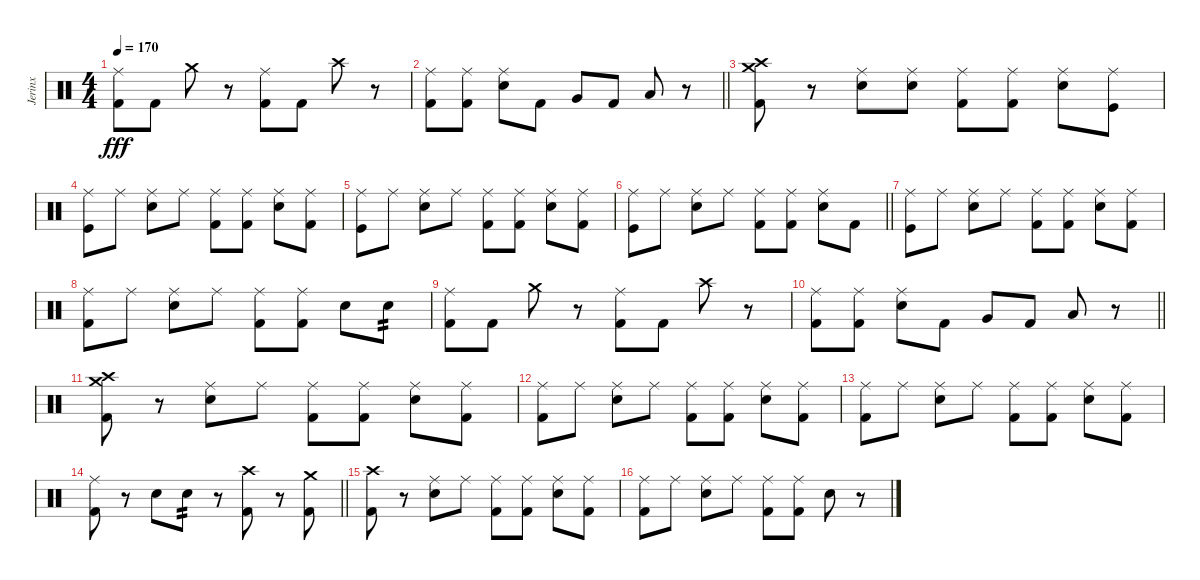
\track ("Jerinx" "Jerinx") {instrument percussion}
\staff {score}
\articulation defaults
\ts (4 4)
\tempo 170
\clef neutral
\ks c
("Kick (hit) 2" "Ride (middle)").8{dy fff} "Kick (hit) 2".8 "Crash medium (hit)".8 r.8 ("Kick (hit) 2" "Ride (middle)").8 "Kick (hit) 2".8 "Crash high (hit)".8 r.8 |
\barLineRight lightlight
("Kick (hit) 2" "Ride (middle)").8 ("Kick (hit) 2" "Ride (middle)").8 ("Snare (hit) 2" "Ride (middle)").8 "Kick (hit) 2".8 "Very Low Tom (hit)".8 "Kick (hit) 2".8 "Low Tom (hit)".8 r.8 |
("Kick (hit) 2" "Crash medium (hit)" "Crash high (hit)").8 r.8 ("Snare (hit) 2" "Ride (middle)").8 ("Snare (hit) 2" "Ride (middle)").8 ("Kick (hit) 2" "Ride (middle)").8 ("Kick (hit) 2" "Ride (middle)").8 ("Snare (hit) 2" "Ride (middle)").8 ("Kick (hit)" "Ride (middle)").8 |
("Kick (hit)" "Ride (middle)").8 "Ride (middle)".8 ("Snare (hit) 2" "Ride (middle)").8 "Ride (middle)".8 ("Kick (hit) 2" "Ride (middle)").8 ("Kick (hit) 2" "Ride (middle)").8 ("Snare (hit) 2" "Ride (middle)").8 ("Kick (hit) 2" "Ride (middle)").8 |
("Kick (hit)" "Ride (middle)").8 "Ride (middle)".8 ("Snare (hit) 2" "Ride (middle)").8 "Ride (middle)".8 ("Kick (hit) 2" "Ride (middle)").8 ("Kick (hit) 2" "Ride (middle)").8 ("Snare (hit) 2" "Ride (middle)").8 ("Kick (hit) 2" "Ride (middle)").8 |
\barLineRight lightlight
("Kick (hit)" "Ride (middle)").8 "Ride (middle)".8 ("Snare (hit) 2" "Ride (middle)").8 "Ride (middle)".8 ("Kick (hit) 2" "Ride (middle)").8 ("Kick (hit) 2" "Ride (middle)").8 ("Snare (hit) 2" "Ride (middle)").8 "Kick (hit) 2".8 |
("Kick (hit)" "Ride (middle)").8 "Ride (middle)".8 ("Snare (hit) 2" "Ride (middle)").8 "Ride (middle)".8 ("Kick (hit) 2" "Ride (middle)").8 ("Kick (hit) 2" "Ride (middle)").8 ("Snare (hit) 2" "Ride (middle)").8 ("Kick (hit) 2" "Ride (middle)").8 |
("Kick (hit) 2" "Ride (middle)").8 "Ride (middle)".8 ("Snare (hit) 2" "Ride (middle)").8 "Ride (middle)".8 ("Kick (hit) 2" "Ride (middle)").8 ("Kick (hit) 2" "Ride (middle)").8 "Snare (hit) 2".8 "Snare (hit) 2".8{tp 2} |
("Kick (hit) 2" "Ride (middle)").8 "Kick (hit) 2".8 "Crash medium (hit)".8 r.8 ("Kick (hit) 2" "Ride (middle)").8 "Kick (hit) 2".8 "Crash high (hit)".8 r.8 |
\barLineRight lightlight
("Kick (hit) 2" "Ride (middle)").8 ("Kick (hit) 2" "Ride (middle)").8 ("Snare (hit) 2" "Ride (middle)").8 "Kick (hit) 2".8 "Very Low Tom (hit)".8 "Kick (hit) 2".8 "Low Tom (hit)".8 r.8 |
("Kick (hit) 2" "Crash high (hit)" "Crash medium (hit)").8 r.8 ("Snare (hit) 2" "Ride (middle)").8 "Ride (middle)".8 ("Kick (hit) 2" "Ride (middle)").8 ("Kick (hit) 2" "Ride (middle)").8 ("Snare (hit) 2" "Ride (middle)").8 ("Kick (hit) 2" "Ride (middle)").8 |
("Kick (hit) 2" "Ride (middle)").8 "Ride (middle)".8 ("Snare (hit) 2" "Ride (middle)").8 "Ride (middle)".8 ("Kick (hit) 2" "Ride (middle)").8 ("Kick (hit) 2" "Ride (middle)").8 ("Snare (hit) 2" "Ride (middle)").8 ("Kick (hit) 2" "Ride (middle)").8 |
("Kick (hit) 2" "Ride (middle)").8 "Ride (middle)".8 ("Snare (hit) 2" "Ride (middle)").8 "Ride (middle)".8 ("Kick (hit) 2" "Ride (middle)").8 ("Kick (hit) 2" "Ride (middle)").8 ("Snare (hit) 2" "Ride (middle)").8 ("Kick (hit) 2" "Ride (middle)").8 |
\barLineRight lightlight
("Kick (hit) 2" "Ride (middle)").8 r.8 "Snare (hit) 2".8 "Snare (hit) 2".8{tp 2} r.8 ("Kick (hit) 2" "Crash high (hit)").8 r.8 ("Kick (hit) 2" "Crash medium (hit)").8 |
("Kick (hit) 2" "Crash high (hit)").8 r.8 ("Snare (hit) 2" "Ride (middle)").8 "Ride (middle)".8 ("Kick (hit) 2" "Ride (middle)").8 ("Kick (hit) 2" "Ride (middle)").8 ("Snare (hit) 2" "Ride (middle)").8 ("Kick (hit) 2" "Ride (middle)").8 |
("Kick (hit) 2" "Ride (middle)").8 "Ride (middle)".8 ("Snare (hit) 2" "Ride (middle)").8 "Ride (middle)".8 ("Kick (hit) 2" "Ride (middle)").8 ("Kick (hit) 2" "Ride (middle)").8 "Snare (hit) 2".8 r.8
